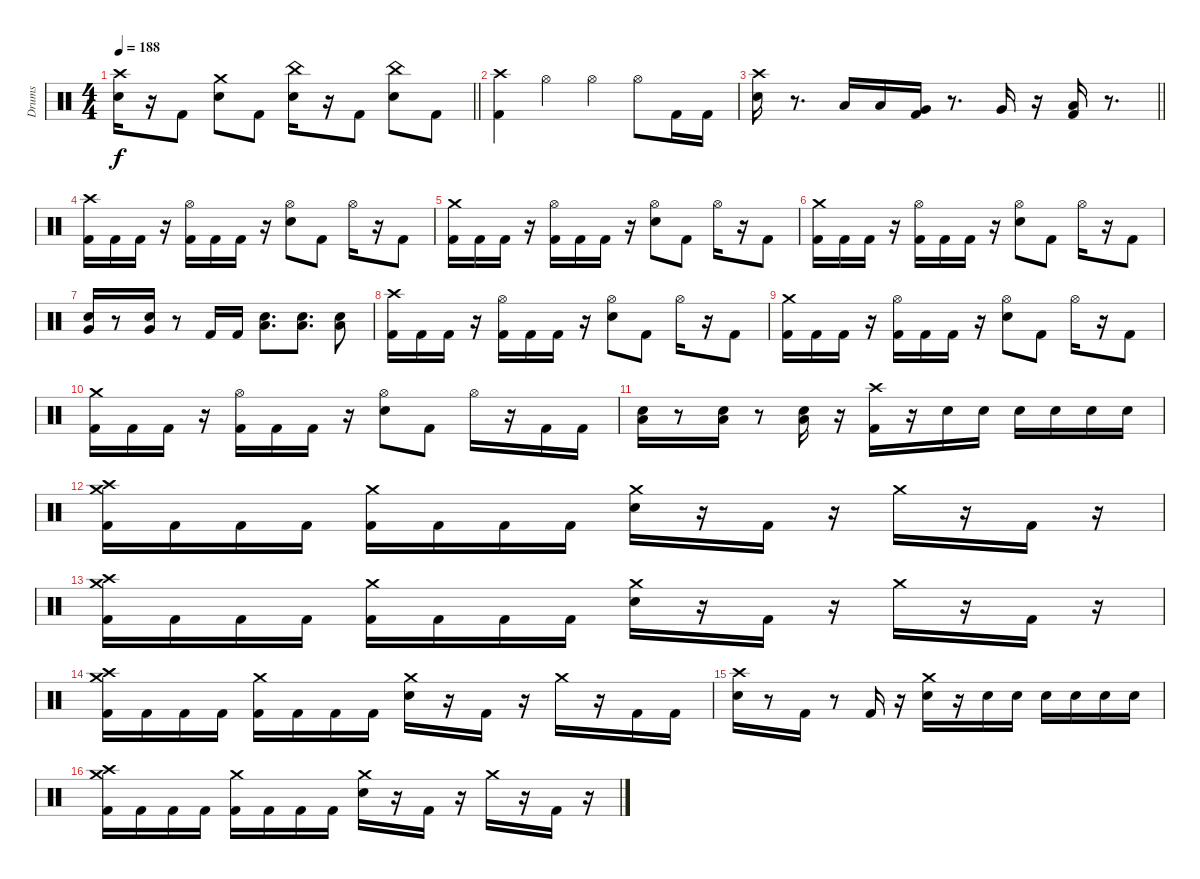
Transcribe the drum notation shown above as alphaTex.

\track ("Drums" "Drums") {instrument percussion}
\staff {score}
\articulation defaults
\ts (4 4)
\tempo 188
\clef neutral
\barLineRight lightlight
\ks c
("Snare (hit) 2" "Crash high (hit)").16{dy f} r.16 "Kick (hit) 2".8 ("Snare (hit) 2" "Crash medium (hit)").8 "Kick (hit) 2".8 ("Snare (hit) 2" "China (hit)").16 r.16 "Kick (hit) 2".8 ("Snare (hit) 2" "China (hit)").8 "Kick (hit) 2".8 |
\section ("" " ")
("Kick (hit) 2" "Crash high (hit)").4 "Hi-Hat (open)".4 "Hi-Hat (open)".4 "Hi-Hat (open)".8 "Kick (hit) 2".16 "Kick (hit) 2".16 |
\barLineRight lightlight
("Snare (hit) 2" "Crash high (hit)").16 r.8{d} "Low Tom (hit)".16 "Low Tom (hit)".16 ("Kick (hit) 2" "Very Low Tom (hit)").16 r.8{d} "Very Low Tom (hit)".16 r.16 ("Kick (hit) 2" "Low Floor Tom (hit)").16 r.8{d} |
\section ("" " ")
("Kick (hit) 2" "Crash high (hit)").16 "Kick (hit) 2".16 "Kick (hit) 2".16 r.16 ("Kick (hit) 2" "Hi-Hat (open)").16 "Kick (hit) 2".16 "Kick (hit) 2".16 r.16 ("Snare (hit) 2" "Hi-Hat (open)").8 "Kick (hit) 2".8 "Hi-Hat (open)".16 r.16 "Kick (hit) 2".8 |
("Kick (hit) 2" "Crash medium (hit)").16 "Kick (hit) 2".16 "Kick (hit) 2".16 r.16 ("Kick (hit) 2" "Hi-Hat (open)").16 "Kick (hit) 2".16 "Kick (hit) 2".16 r.16 ("Snare (hit) 2" "Hi-Hat (open)").8 "Kick (hit) 2".8 "Hi-Hat (open)".16 r.16 "Kick (hit) 2".8 |
("Kick (hit) 2" "Crash medium (hit)").16 "Kick (hit) 2".16 "Kick (hit) 2".16 r.16 ("Kick (hit) 2" "Hi-Hat (open)").16 "Kick (hit) 2".16 "Kick (hit) 2".16 r.16 ("Snare (hit) 2" "Hi-Hat (open)").8 "Kick (hit) 2".8 "Hi-Hat (open)".16 r.16 "Kick (hit) 2".8 |
("Snare (hit) 2" "Very Low Tom (hit)").16 r.8 ("Snare (hit) 2" "Very Low Tom (hit)").16 r.8 "Kick (hit) 2".16 "Kick (hit) 2".16 ("Snare (hit) 2" "Low Floor Tom (hit)").8{d} ("Snare (hit) 2" "Low Floor Tom (hit)").8{d} ("Snare (hit) 2" "Low Floor Tom (hit)").8 |
("Kick (hit) 2" "Crash high (hit)").16 "Kick (hit) 2".16 "Kick (hit) 2".16 r.16 ("Kick (hit) 2" "Hi-Hat (open)").16 "Kick (hit) 2".16 "Kick (hit) 2".16 r.16 ("Snare (hit) 2" "Hi-Hat (open)").8 "Kick (hit) 2".8 "Hi-Hat (open)".16 r.16 "Kick (hit) 2".8 |
("Kick (hit) 2" "Crash medium (hit)").16 "Kick (hit) 2".16 "Kick (hit) 2".16 r.16 ("Kick (hit) 2" "Hi-Hat (open)").16 "Kick (hit) 2".16 "Kick (hit) 2".16 r.16 ("Snare (hit) 2" "Hi-Hat (open)").8 "Kick (hit) 2".8 "Hi-Hat (open)".16 r.16 "Kick (hit) 2".8 |
("Kick (hit) 2" "Crash medium (hit)").16 "Kick (hit) 2".16 "Kick (hit) 2".16 r.16 ("Kick (hit) 2" "Hi-Hat (open)").16 "Kick (hit) 2".16 "Kick (hit) 2".16 r.16 ("Snare (hit) 2" "Hi-Hat (open)").8 "Kick (hit) 2".8 "Hi-Hat (open)".16 r.16 "Kick (hit) 2".16 "Kick (hit) 2".16 |
("Snare (hit) 2" "Low Floor Tom (hit)").16 r.8 ("Snare (hit) 2" "Low Floor Tom (hit)").16 r.8 ("Snare (hit) 2" "Low Floor Tom (hit)").16 r.16 ("Kick (hit) 2" "Crash high (hit)").16 r.16 "Snare (hit) 2".16 "Snare (hit) 2".16 "Snare (hit) 2".16 "Snare (hit) 2".16 "Snare (hit) 2".16 "Snare (hit) 2".16 |
("Kick (hit) 2" "Crash high (hit)" "Crash medium (hit)").16 "Kick (hit) 2".16 "Kick (hit) 2".16 "Kick (hit) 2".16 ("Kick (hit) 2" "Crash medium (hit)").16 "Kick (hit) 2".16 "Kick (hit) 2".16 "Kick (hit) 2".16 ("Snare (hit) 2" "Crash medium (hit)").16 r.16 "Kick (hit) 2".16 r.16 "Crash medium (hit)".16 r.16 "Kick (hit) 2".16 r.16 |
("Kick (hit) 2" "Crash high (hit)" "Crash medium (hit)").16 "Kick (hit) 2".16 "Kick (hit) 2".16 "Kick (hit) 2".16 ("Kick (hit) 2" "Crash medium (hit)").16 "Kick (hit) 2".16 "Kick (hit) 2".16 "Kick (hit) 2".16 ("Snare (hit) 2" "Crash medium (hit)").16 r.16 "Kick (hit) 2".16 r.16 "Crash medium (hit)".16 r.16 "Kick (hit) 2".16 r.16 |
("Kick (hit) 2" "Crash high (hit)" "Crash medium (hit)").16 "Kick (hit) 2".16 "Kick (hit) 2".16 "Kick (hit) 2".16 ("Kick (hit) 2" "Crash medium (hit)").16 "Kick (hit) 2".16 "Kick (hit) 2".16 "Kick (hit) 2".16 ("Snare (hit) 2" "Crash medium (hit)").16 r.16 "Kick (hit) 2".16 r.16 "Crash medium (hit)".16 r.16 "Kick (hit) 2".16 "Kick (hit) 2".16 |
("Snare (hit) 2" "Crash high (hit)").16 r.8 "Kick (hit) 2".16 r.8 "Kick (hit) 2".16 r.16 ("Snare (hit) 2" "Crash medium (hit)").16 r.16 "Snare (hit) 2".16 "Snare (hit) 2".16 "Snare (hit) 2".16 "Snare (hit) 2".16 "Snare (hit) 2".16 "Snare (hit) 2".16 |
("Kick (hit) 2" "Crash high (hit)" "Crash medium (hit)").16 "Kick (hit) 2".16 "Kick (hit) 2".16 "Kick (hit) 2".16 ("Kick (hit) 2" "Crash medium (hit)").16 "Kick (hit) 2".16 "Kick (hit) 2".16 "Kick (hit) 2".16 ("Snare (hit) 2" "Crash medium (hit)").16 r.16 "Kick (hit) 2".16 r.16 "Crash medium (hit)".16 r.16 "Kick (hit) 2".16 r.16
